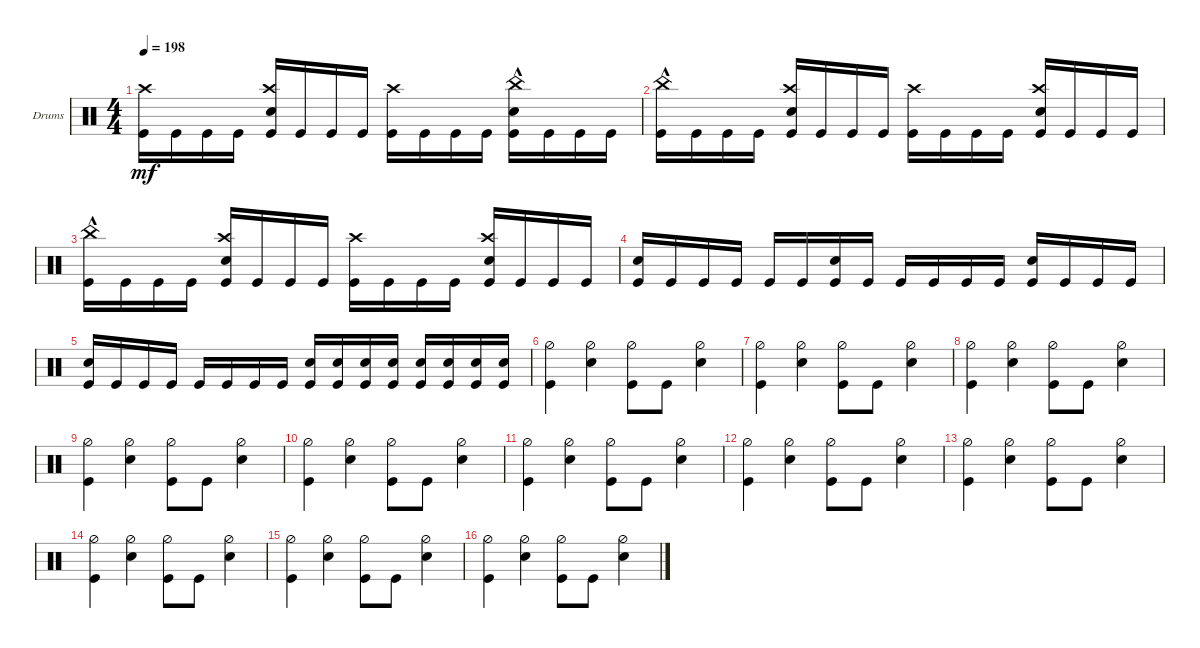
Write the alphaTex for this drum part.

\bracketExtendMode groupsimilarinstruments
\firstSystemTrackNameOrientation horizontal
\otherSystemsTrackNameOrientation horizontal
\track ("Drumkit" "Drums") {instrument percussion}
\staff {score}
\articulation defaults
\ts (4 4)
\tempo 198
\clef neutral
\ks c
("Kick (hit)" "Crash high (hit)").16{dy mf} "Kick (hit)".16 "Kick (hit)".16 "Kick (hit)".16 ("Kick (hit)" "Snare (hit) 2" "Crash high (hit)").16 "Kick (hit)".16 "Kick (hit)".16 "Kick (hit)".16 ("Kick (hit)" "Crash high (hit)").16 "Kick (hit)".16 "Kick (hit)".16 "Kick (hit)".16 ("Kick (hit)" "Snare (hit) 2" "China (hit)"{hac}).16 "Kick (hit)".16 "Kick (hit)".16 "Kick (hit)".16 |
("Kick (hit)" "China (hit)"{hac}).16 "Kick (hit)".16 "Kick (hit)".16 "Kick (hit)".16 ("Kick (hit)" "Snare (hit) 2" "Crash high (hit)").16 "Kick (hit)".16 "Kick (hit)".16 "Kick (hit)".16 ("Kick (hit)" "Crash high (hit)").16 "Kick (hit)".16 "Kick (hit)".16 "Kick (hit)".16 ("Kick (hit)" "Snare (hit) 2" "Crash high (hit)").16 "Kick (hit)".16 "Kick (hit)".16 "Kick (hit)".16 |
("Kick (hit)" "China (hit)"{hac}).16 "Kick (hit)".16 "Kick (hit)".16 "Kick (hit)".16 ("Kick (hit)" "Snare (hit) 2" "Crash high (hit)").16 "Kick (hit)".16 "Kick (hit)".16 "Kick (hit)".16 ("Kick (hit)" "Crash high (hit)").16 "Kick (hit)".16 "Kick (hit)".16 "Kick (hit)".16 ("Kick (hit)" "Snare (hit) 2" "Crash high (hit)").16 "Kick (hit)".16 "Kick (hit)".16 "Kick (hit)".16 |
("Kick (hit)" "Snare (hit) 2").16 "Kick (hit)".16 "Kick (hit)".16 "Kick (hit)".16 "Kick (hit)".16 "Kick (hit)".16 ("Kick (hit)" "Snare (hit) 2").16 "Kick (hit)".16 "Kick (hit)".16 "Kick (hit)".16 "Kick (hit)".16 "Kick (hit)".16 ("Kick (hit)" "Snare (hit) 2").16 "Kick (hit)".16 "Kick (hit)".16 "Kick (hit)".16 |
("Kick (hit)" "Snare (hit) 2").16 "Kick (hit)".16 "Kick (hit)".16 "Kick (hit)".16 "Kick (hit)".16 "Kick (hit)".16 "Kick (hit)".16 "Kick (hit)".16 ("Kick (hit)" "Snare (hit) 2").16 ("Kick (hit)" "Snare (hit) 2").16 ("Kick (hit)" "Snare (hit) 2").16 ("Kick (hit)" "Snare (hit) 2").16 ("Kick (hit)" "Snare (hit) 2").16 ("Kick (hit)" "Snare (hit) 2").16 ("Kick (hit)" "Snare (hit) 2").16 ("Kick (hit)" "Snare (hit) 2").16 |
\section ("" "")
("Kick (hit)" "Hi-Hat (half)").4 ("Snare (hit) 2" "Hi-Hat (half)").4 ("Kick (hit)" "Hi-Hat (half)").8 "Kick (hit)".8 ("Snare (hit) 2" "Hi-Hat (half)").4 |
("Kick (hit)" "Hi-Hat (half)").4 ("Snare (hit) 2" "Hi-Hat (half)").4 ("Kick (hit)" "Hi-Hat (half)").8 "Kick (hit)".8 ("Snare (hit) 2" "Hi-Hat (half)").4 |
("Kick (hit)" "Hi-Hat (half)").4 ("Snare (hit) 2" "Hi-Hat (half)").4 ("Kick (hit)" "Hi-Hat (half)").8 "Kick (hit)".8 ("Snare (hit) 2" "Hi-Hat (half)").4 |
("Kick (hit)" "Hi-Hat (half)").4 ("Snare (hit) 2" "Hi-Hat (half)").4 ("Kick (hit)" "Hi-Hat (half)").8 "Kick (hit)".8 ("Snare (hit) 2" "Hi-Hat (half)").4 |
("Kick (hit)" "Hi-Hat (half)").4 ("Snare (hit) 2" "Hi-Hat (half)").4 ("Kick (hit)" "Hi-Hat (half)").8 "Kick (hit)".8 ("Snare (hit) 2" "Hi-Hat (half)").4 |
("Kick (hit)" "Hi-Hat (half)").4 ("Snare (hit) 2" "Hi-Hat (half)").4 ("Kick (hit)" "Hi-Hat (half)").8 "Kick (hit)".8 ("Snare (hit) 2" "Hi-Hat (half)").4 |
("Kick (hit)" "Hi-Hat (half)").4 ("Snare (hit) 2" "Hi-Hat (half)").4 ("Kick (hit)" "Hi-Hat (half)").8 "Kick (hit)".8 ("Snare (hit) 2" "Hi-Hat (half)").4 |
("Kick (hit)" "Hi-Hat (half)").4 ("Snare (hit) 2" "Hi-Hat (half)").4 ("Kick (hit)" "Hi-Hat (half)").8 "Kick (hit)".8 ("Snare (hit) 2" "Hi-Hat (half)").4 |
("Kick (hit)" "Hi-Hat (half)").4 ("Snare (hit) 2" "Hi-Hat (half)").4 ("Kick (hit)" "Hi-Hat (half)").8 "Kick (hit)".8 ("Snare (hit) 2" "Hi-Hat (half)").4 |
("Kick (hit)" "Hi-Hat (half)").4 ("Snare (hit) 2" "Hi-Hat (half)").4 ("Kick (hit)" "Hi-Hat (half)").8 "Kick (hit)".8 ("Snare (hit) 2" "Hi-Hat (half)").4 |
("Kick (hit)" "Hi-Hat (half)").4 ("Snare (hit) 2" "Hi-Hat (half)").4 ("Kick (hit)" "Hi-Hat (half)").8 "Kick (hit)".8 ("Snare (hit) 2" "Hi-Hat (half)").4
